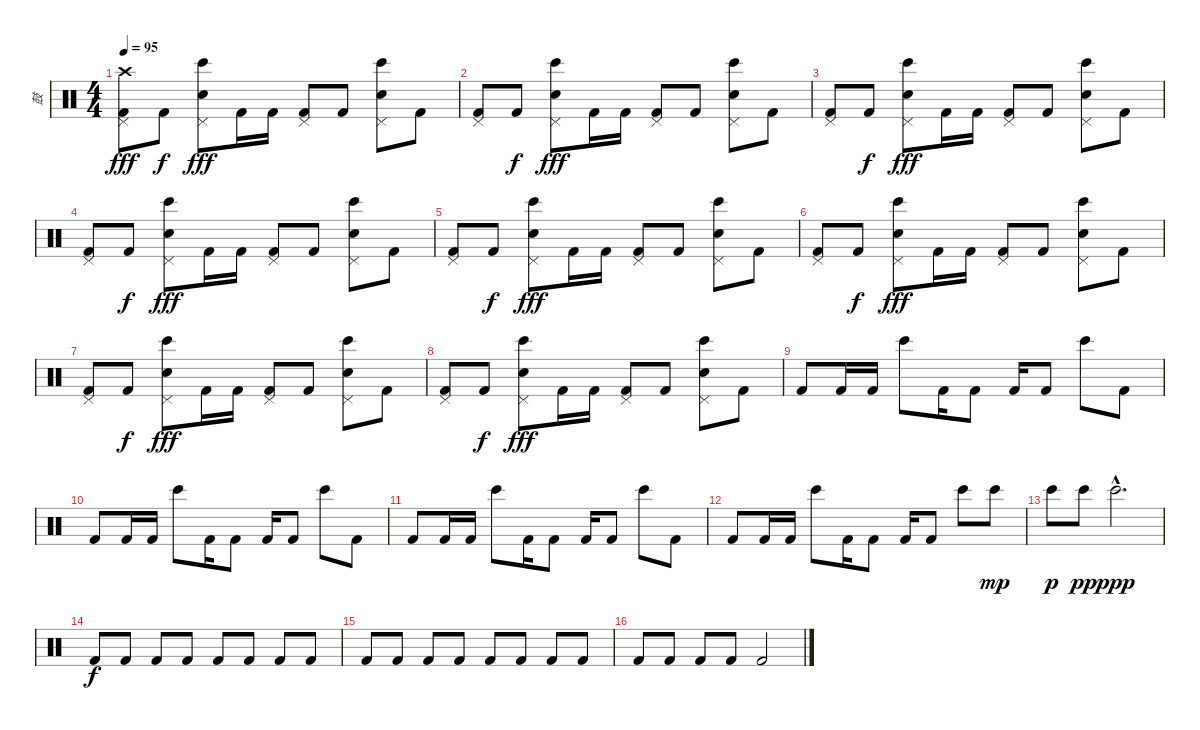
\track ("鼓" "鼓") {instrument percussion}
\staff {score}
\articulation defaults
\ts (4 4)
\tempo 95
\clef neutral
\ks c
("Pedal Hi-Hat (hit)" "Kick (hit) 2" "Crash high (hit)").8{dy fff} "Kick (hit) 2".8{dy f} ("Pedal Hi-Hat (hit)" "Electric Snare (hit)" "Bongo High (hit)").8{dy fff} "Kick (hit) 2".16 "Kick (hit) 2".16 ("Pedal Hi-Hat (hit)" "Kick (hit) 2").8 "Kick (hit) 2".8 ("Pedal Hi-Hat (hit)" "Electric Snare (hit)" "Bongo High (hit)").8 "Kick (hit) 2".8 |
("Pedal Hi-Hat (hit)" "Kick (hit) 2").8 "Kick (hit) 2".8{dy f} ("Pedal Hi-Hat (hit)" "Electric Snare (hit)" "Bongo High (hit)").8{dy fff} "Kick (hit) 2".16 "Kick (hit) 2".16 ("Pedal Hi-Hat (hit)" "Kick (hit) 2").8 "Kick (hit) 2".8 ("Pedal Hi-Hat (hit)" "Electric Snare (hit)" "Bongo High (hit)").8 "Kick (hit) 2".8 |
("Pedal Hi-Hat (hit)" "Kick (hit) 2").8 "Kick (hit) 2".8{dy f} ("Pedal Hi-Hat (hit)" "Electric Snare (hit)" "Bongo High (hit)").8{dy fff} "Kick (hit) 2".16 "Kick (hit) 2".16 ("Pedal Hi-Hat (hit)" "Kick (hit) 2").8 "Kick (hit) 2".8 ("Pedal Hi-Hat (hit)" "Electric Snare (hit)" "Bongo High (hit)").8 "Kick (hit) 2".8 |
("Pedal Hi-Hat (hit)" "Kick (hit) 2").8 "Kick (hit) 2".8{dy f} ("Pedal Hi-Hat (hit)" "Electric Snare (hit)" "Bongo High (hit)").8{dy fff} "Kick (hit) 2".16 "Kick (hit) 2".16 ("Pedal Hi-Hat (hit)" "Kick (hit) 2").8 "Kick (hit) 2".8 ("Pedal Hi-Hat (hit)" "Electric Snare (hit)" "Bongo High (hit)").8 "Kick (hit) 2".8 |
("Pedal Hi-Hat (hit)" "Kick (hit) 2").8 "Kick (hit) 2".8{dy f} ("Pedal Hi-Hat (hit)" "Electric Snare (hit)" "Bongo High (hit)").8{dy fff} "Kick (hit) 2".16 "Kick (hit) 2".16 ("Pedal Hi-Hat (hit)" "Kick (hit) 2").8 "Kick (hit) 2".8 ("Pedal Hi-Hat (hit)" "Electric Snare (hit)" "Bongo High (hit)").8 "Kick (hit) 2".8 |
("Pedal Hi-Hat (hit)" "Kick (hit) 2").8 "Kick (hit) 2".8{dy f} ("Pedal Hi-Hat (hit)" "Electric Snare (hit)" "Bongo High (hit)").8{dy fff} "Kick (hit) 2".16 "Kick (hit) 2".16 ("Pedal Hi-Hat (hit)" "Kick (hit) 2").8 "Kick (hit) 2".8 ("Pedal Hi-Hat (hit)" "Electric Snare (hit)" "Bongo High (hit)").8 "Kick (hit) 2".8 |
("Pedal Hi-Hat (hit)" "Kick (hit) 2").8 "Kick (hit) 2".8{dy f} ("Pedal Hi-Hat (hit)" "Electric Snare (hit)" "Bongo High (hit)").8{dy fff} "Kick (hit) 2".16 "Kick (hit) 2".16 ("Pedal Hi-Hat (hit)" "Kick (hit) 2").8 "Kick (hit) 2".8 ("Pedal Hi-Hat (hit)" "Electric Snare (hit)" "Bongo High (hit)").8 "Kick (hit) 2".8 |
("Pedal Hi-Hat (hit)" "Kick (hit) 2").8 "Kick (hit) 2".8{dy f} ("Pedal Hi-Hat (hit)" "Electric Snare (hit)" "Bongo High (hit)").8{dy fff} "Kick (hit) 2".16 "Kick (hit) 2".16 ("Pedal Hi-Hat (hit)" "Kick (hit) 2").8 "Kick (hit) 2".8 ("Pedal Hi-Hat (hit)" "Electric Snare (hit)" "Bongo High (hit)").8 "Kick (hit) 2".8 |
"Kick (hit) 2".8 "Kick (hit) 2".16 "Kick (hit) 2".16 "Bongo High (hit)".8 "Kick (hit) 2".16 "Kick (hit) 2".8 "Kick (hit) 2".16 "Kick (hit) 2".8 "Bongo High (hit)".8 "Kick (hit) 2".8 |
"Kick (hit) 2".8 "Kick (hit) 2".16 "Kick (hit) 2".16 "Bongo High (hit)".8 "Kick (hit) 2".16 "Kick (hit) 2".8 "Kick (hit) 2".16 "Kick (hit) 2".8 "Bongo High (hit)".8 "Kick (hit) 2".8 |
"Kick (hit) 2".8 "Kick (hit) 2".16 "Kick (hit) 2".16 "Bongo High (hit)".8 "Kick (hit) 2".16 "Kick (hit) 2".8 "Kick (hit) 2".16 "Kick (hit) 2".8 "Bongo High (hit)".8 "Kick (hit) 2".8 |
"Kick (hit) 2".8 "Kick (hit) 2".16 "Kick (hit) 2".16 "Bongo High (hit)".8 "Kick (hit) 2".16 "Kick (hit) 2".8 "Kick (hit) 2".16 "Kick (hit) 2".8 "Bongo High (hit)".8 "Bongo High (hit)".8{dy mp} |
"Bongo High (hit)".8{dy p} "Bongo High (hit)".8{dy pp} "Bongo High (hit)"{hac}.2{d dy ppp} |
"Kick (hit) 2".8{dy f} "Kick (hit) 2".8 "Kick (hit) 2".8 "Kick (hit) 2".8 "Kick (hit) 2".8 "Kick (hit) 2".8 "Kick (hit) 2".8 "Kick (hit) 2".8 |
"Kick (hit) 2".8 "Kick (hit) 2".8 "Kick (hit) 2".8 "Kick (hit) 2".8 "Kick (hit) 2".8 "Kick (hit) 2".8 "Kick (hit) 2".8 "Kick (hit) 2".8 |
"Kick (hit) 2".8 "Kick (hit) 2".8 "Kick (hit) 2".8 "Kick (hit) 2".8 "Kick (hit) 2".2
